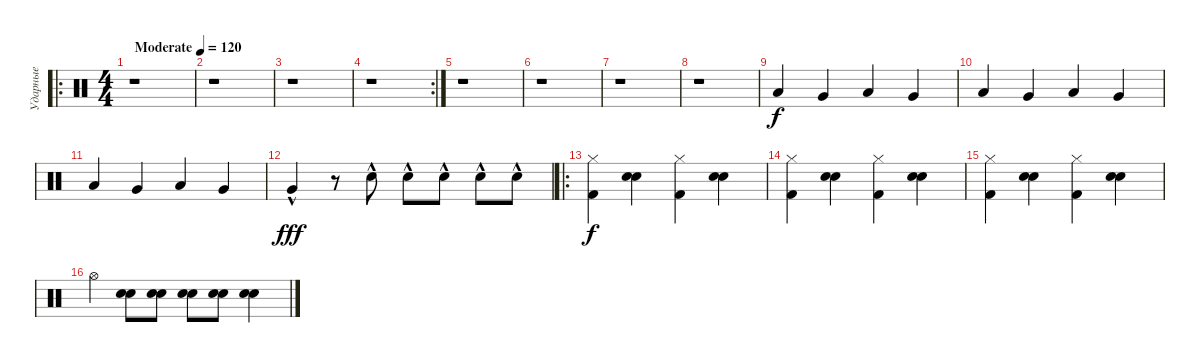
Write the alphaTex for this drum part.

\track ("Ударные" "Ударные") {instrument percussion}
\staff {score}
\articulation defaults
\ro
\ts (4 4)
\tempo (120 "Moderate")
\clef neutral
\ks c
r.1{dy f} |
r.1 |
r.1 |
\rc 2
r.1 |
r.1 |
r.1 |
r.1 |
r.1 |
"Low Tom (hit)".4 "Very Low Tom (hit)".4 "Low Tom (hit)".4 "Very Low Tom (hit)".4 |
"Low Tom (hit)".4 "Very Low Tom (hit)".4 "Low Tom (hit)".4 "Very Low Tom (hit)".4 |
"Low Tom (hit)".4 "Very Low Tom (hit)".4 "Low Tom (hit)".4 "Very Low Tom (hit)".4 |
"Very Low Tom (hit)"{hac}.4{dy fff} r.8 "Snare (hit) 2"{hac}.8 "Snare (hit) 2"{hac}.8 "Electric Snare (hit)"{hac}.8 "Electric Snare (hit)"{hac}.8 "Electric Snare (hit)"{hac}.8 |
\ro
("Hi-Hat (closed)" "Kick (hit) 2").4{dy f} ("Snare (hit) 2" "Electric Snare (hit)").4 ("Hi-Hat (closed)" "Kick (hit) 2").4 ("Snare (hit) 2" "Electric Snare (hit)").4 |
("Hi-Hat (closed)" "Kick (hit) 2").4 ("Snare (hit) 2" "Electric Snare (hit)").4 ("Hi-Hat (closed)" "Kick (hit) 2").4 ("Snare (hit) 2" "Electric Snare (hit)").4 |
("Hi-Hat (closed)" "Kick (hit) 2").4 ("Snare (hit) 2" "Electric Snare (hit)").4 ("Hi-Hat (closed)" "Kick (hit) 2").4 ("Snare (hit) 2" "Electric Snare (hit)").4 |
"Hi-Hat (open)".4 ("Electric Snare (hit)" "Snare (hit) 2").8 ("Electric Snare (hit)" "Snare (hit) 2").8 ("Electric Snare (hit)" "Snare (hit) 2").8 ("Electric Snare (hit)" "Snare (hit) 2").8 ("Electric Snare (hit)" "Snare (hit) 2").4
